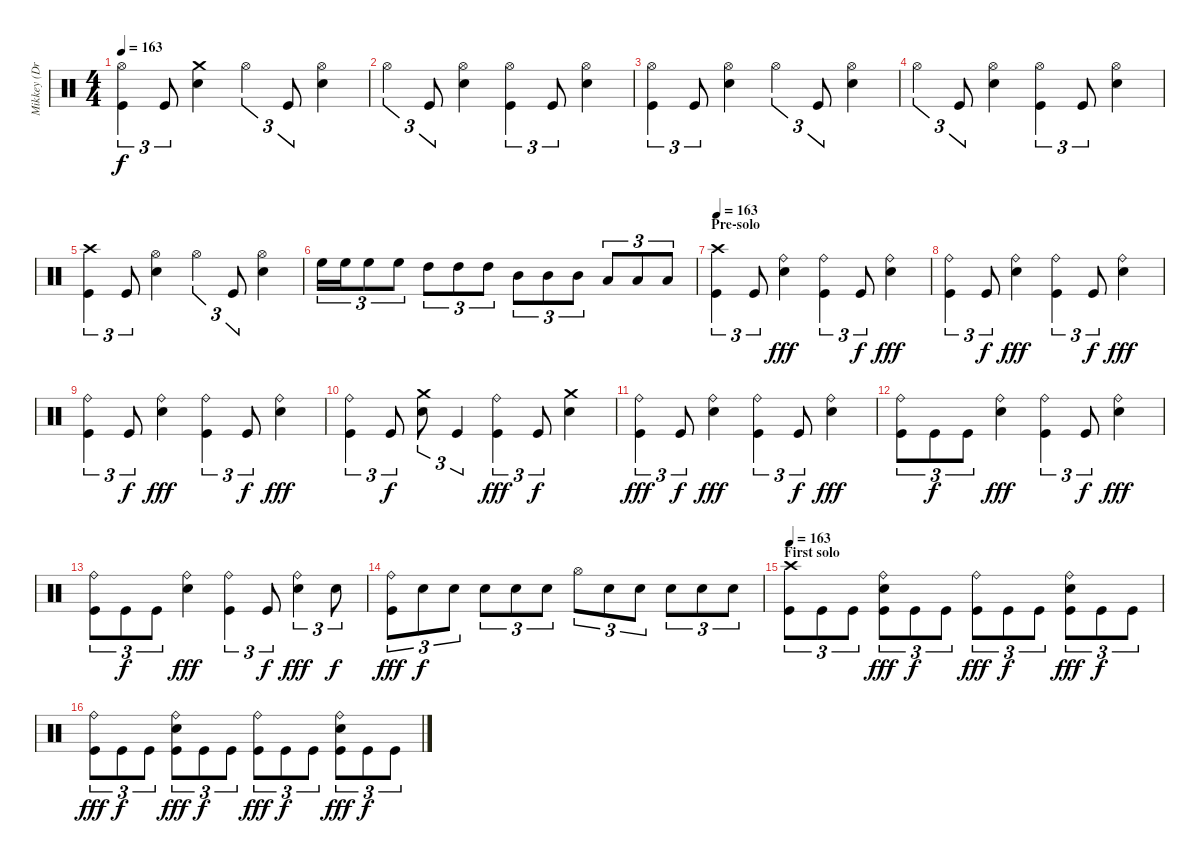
\track ("Mikkey (Drums)" "Mikkey (Dr") {instrument percussion}
\staff {score}
\articulation defaults
\ts (4 4)
\tempo 163
\clef neutral
\ks c
("Hi-Hat (open)" "Kick (hit)").4{tu (3 2) dy f} "Kick (hit)".8{tu (3 2)} ("Crash medium (hit)" "Electric Snare (hit)").4 "Hi-Hat (open)".4{tu (3 2)} "Kick (hit)".8{tu (3 2)} ("Hi-Hat (open)" "Electric Snare (hit)").4 |
"Hi-Hat (open)".4{tu (3 2)} "Kick (hit)".8{tu (3 2)} ("Hi-Hat (open)" "Electric Snare (hit)").4 ("Hi-Hat (open)" "Kick (hit)").4{tu (3 2)} "Kick (hit)".8{tu (3 2)} ("Hi-Hat (open)" "Electric Snare (hit)").4 |
("Hi-Hat (open)" "Kick (hit)").4{tu (3 2)} "Kick (hit)".8{tu (3 2)} ("Hi-Hat (open)" "Electric Snare (hit)").4 "Hi-Hat (open)".4{tu (3 2)} "Kick (hit)".8{tu (3 2)} ("Hi-Hat (open)" "Electric Snare (hit)").4 |
"Hi-Hat (open)".4{tu (3 2)} "Kick (hit)".8{tu (3 2)} ("Hi-Hat (open)" "Electric Snare (hit)").4 ("Hi-Hat (open)" "Kick (hit)").4{tu (3 2)} "Kick (hit)".8{tu (3 2)} ("Hi-Hat (open)" "Electric Snare (hit)").4 |
("Crash high (hit)" "Kick (hit)").4{tu (3 2)} "Kick (hit)".8{tu (3 2)} ("Hi-Hat (open)" "Electric Snare (hit)").4 "Hi-Hat (open)".4{tu (3 2)} "Kick (hit)".8{tu (3 2)} ("Hi-Hat (open)" "Electric Snare (hit)").4 |
"High Floor Tom (hit)".16{tu (3 2)} "High Floor Tom (hit)".16{tu (3 2)} "High Floor Tom (hit)".8{tu (3 2)} "High Floor Tom (hit)".8{tu (3 2)} "High Tom (hit)".8{tu (3 2)} "High Tom (hit)".8{tu (3 2)} "High Tom (hit)".8{tu (3 2)} "Mid Tom (hit)".8{tu (3 2)} "Mid Tom (hit)".8{tu (3 2)} "Mid Tom (hit)".8{tu (3 2)} "Low Tom (hit)".8{tu (3 2)} "Low Tom (hit)".8{tu (3 2)} "Low Tom (hit)".8{tu (3 2)} |
\section ("" "Pre-solo")
\tempo 163
("Crash high (hit)" "Kick (hit)").4{tu (3 2)} "Kick (hit)".8{tu (3 2)} ("Ride (bell)" "Electric Snare (hit)").4{dy fff} ("Ride (bell)" "Kick (hit)").4{tu (3 2)} "Kick (hit)".8{tu (3 2) dy f} ("Ride (bell)" "Electric Snare (hit)").4{dy fff} |
("Ride (bell)" "Kick (hit)").4{tu (3 2)} "Kick (hit)".8{tu (3 2) dy f} ("Ride (bell)" "Electric Snare (hit)").4{dy fff} ("Ride (bell)" "Kick (hit)").4{tu (3 2)} "Kick (hit)".8{tu (3 2) dy f} ("Ride (bell)" "Electric Snare (hit)").4{dy fff} |
("Ride (bell)" "Kick (hit)").4{tu (3 2)} "Kick (hit)".8{tu (3 2) dy f} ("Ride (bell)" "Electric Snare (hit)").4{dy fff} ("Ride (bell)" "Kick (hit)").4{tu (3 2)} "Kick (hit)".8{tu (3 2) dy f} ("Ride (bell)" "Electric Snare (hit)").4{dy fff} |
("Ride (bell)" "Kick (hit)").4{tu (3 2)} "Kick (hit)".8{tu (3 2) dy f} ("Crash medium (hit)" "Electric Snare (hit)").8{tu (3 2)} "Kick (hit)".4{tu (3 2)} ("Ride (bell)" "Kick (hit)").4{tu (3 2) dy fff} "Kick (hit)".8{tu (3 2) dy f} ("Crash medium (hit)" "Electric Snare (hit)").4 |
("Ride (bell)" "Kick (hit)").4{tu (3 2) dy fff} "Kick (hit)".8{tu (3 2) dy f} ("Ride (bell)" "Electric Snare (hit)").4{dy fff} ("Ride (bell)" "Kick (hit)").4{tu (3 2)} "Kick (hit)".8{tu (3 2) dy f} ("Ride (bell)" "Electric Snare (hit)").4{dy fff} |
("Ride (bell)" "Kick (hit)").8{tu (3 2)} "Kick (hit)".8{tu (3 2) dy f} "Kick (hit)".8{tu (3 2)} ("Ride (bell)" "Electric Snare (hit)").4{dy fff} ("Ride (bell)" "Kick (hit)").4{tu (3 2)} "Kick (hit)".8{tu (3 2) dy f} ("Ride (bell)" "Electric Snare (hit)").4{dy fff} |
("Ride (bell)" "Kick (hit)").8{tu (3 2)} "Kick (hit)".8{tu (3 2) dy f} "Kick (hit)".8{tu (3 2)} ("Ride (bell)" "Electric Snare (hit)").4{dy fff} ("Ride (bell)" "Kick (hit)").4{tu (3 2)} "Kick (hit)".8{tu (3 2) dy f} ("Ride (bell)" "Electric Snare (hit)").4{tu (3 2) dy fff} "Electric Snare (hit)".8{tu (3 2) dy f} |
("Ride (bell)" "Kick (hit)").8{tu (3 2) dy fff} "Electric Snare (hit)".8{tu (3 2) dy f} "Electric Snare (hit)".8{tu (3 2)} "Electric Snare (hit)".8{tu (3 2)} "Electric Snare (hit)".8{tu (3 2)} "Electric Snare (hit)".8{tu (3 2)} "Hi-Hat (open)".8{tu (3 2)} "Electric Snare (hit)".8{tu (3 2)} "Electric Snare (hit)".8{tu (3 2)} "Electric Snare (hit)".8{tu (3 2)} "Electric Snare (hit)".8{tu (3 2)} "Electric Snare (hit)".8{tu (3 2)} |
\section ("" "First solo")
\tempo 163
("Crash high (hit)" "Kick (hit)").8{tu (3 2)} "Kick (hit)".8{tu (3 2)} "Kick (hit)".8{tu (3 2)} ("Ride (bell)" "Electric Snare (hit)" "Kick (hit)").8{tu (3 2) dy fff} "Kick (hit)".8{tu (3 2) dy f} "Kick (hit)".8{tu (3 2)} ("Ride (bell)" "Kick (hit)").8{tu (3 2) dy fff} "Kick (hit)".8{tu (3 2) dy f} "Kick (hit)".8{tu (3 2)} ("Ride (bell)" "Electric Snare (hit)" "Kick (hit)").8{tu (3 2) dy fff} "Kick (hit)".8{tu (3 2) dy f} "Kick (hit)".8{tu (3 2)} |
("Ride (bell)" "Kick (hit)").8{tu (3 2) dy fff} "Kick (hit)".8{tu (3 2) dy f} "Kick (hit)".8{tu (3 2)} ("Ride (bell)" "Electric Snare (hit)" "Kick (hit)").8{tu (3 2) dy fff} "Kick (hit)".8{tu (3 2) dy f} "Kick (hit)".8{tu (3 2)} ("Ride (bell)" "Kick (hit)").8{tu (3 2) dy fff} "Kick (hit)".8{tu (3 2) dy f} "Kick (hit)".8{tu (3 2)} ("Ride (bell)" "Electric Snare (hit)" "Kick (hit)").8{tu (3 2) dy fff} "Kick (hit)".8{tu (3 2) dy f} "Kick (hit)".8{tu (3 2)}
